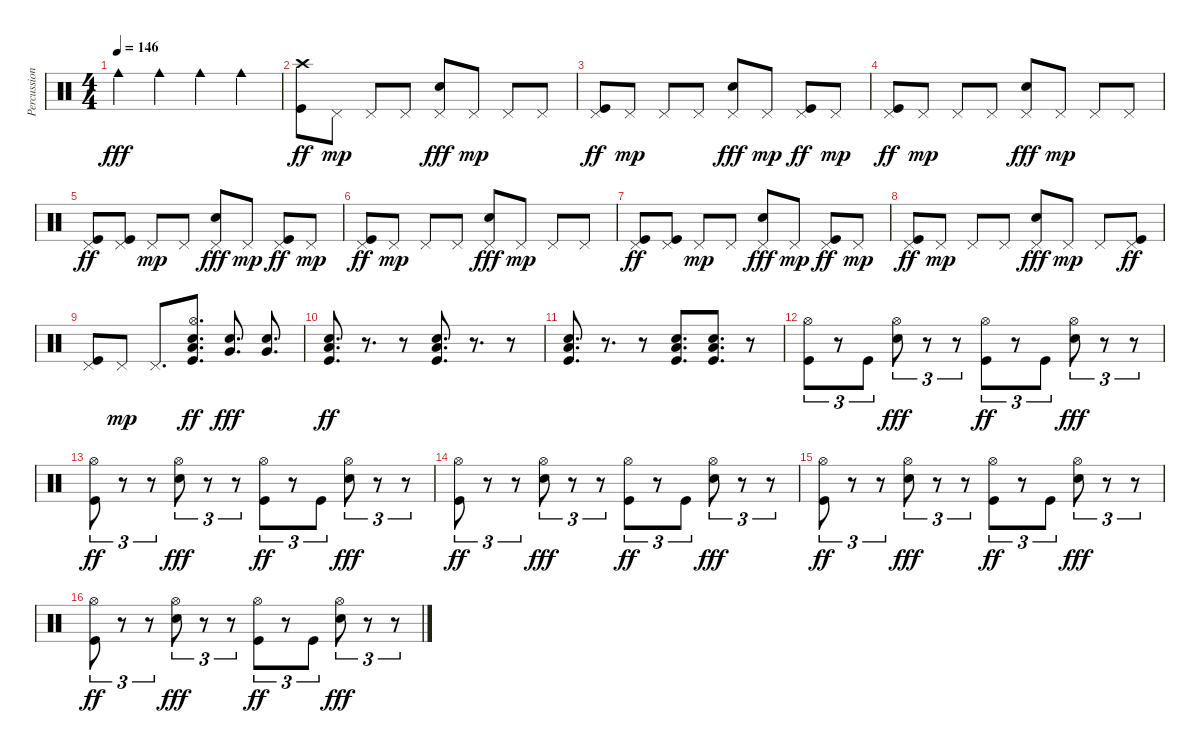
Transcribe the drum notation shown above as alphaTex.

\track ("Percussion" "Percussion") {instrument percussion}
\staff {score}
\articulation defaults
\ts (4 4)
\tempo 146
\tempo 182
\tempo 146
\clef neutral
\ks c "Cowbell medium (hit)".4{dy fff} "Cowbell medium (hit)".4 "Cowbell medium (hit)".4 "Cowbell medium (hit)".4
|
("Crash high (hit)" "Kick (hit)").8{dy ff} "Pedal Hi-Hat (hit)".8{dy mp} "Pedal Hi-Hat (hit)".8 "Pedal Hi-Hat (hit)".8 ("Pedal Hi-Hat (hit)" "Snare (hit) 2").8{dy fff} "Pedal Hi-Hat (hit)".8{dy mp} "Pedal Hi-Hat (hit)".8 "Pedal Hi-Hat (hit)".8 |
("Pedal Hi-Hat (hit)" "Kick (hit)").8{dy ff} "Pedal Hi-Hat (hit)".8{dy mp} "Pedal Hi-Hat (hit)".8 "Pedal Hi-Hat (hit)".8 ("Pedal Hi-Hat (hit)" "Snare (hit) 2").8{dy fff} "Pedal Hi-Hat (hit)".8{dy mp} ("Pedal Hi-Hat (hit)" "Kick (hit)").8{dy ff} "Pedal Hi-Hat (hit)".8{dy mp} |
("Pedal Hi-Hat (hit)" "Kick (hit)").8{dy ff} "Pedal Hi-Hat (hit)".8{dy mp} "Pedal Hi-Hat (hit)".8 "Pedal Hi-Hat (hit)".8 ("Pedal Hi-Hat (hit)" "Snare (hit) 2").8{dy fff} "Pedal Hi-Hat (hit)".8{dy mp} "Pedal Hi-Hat (hit)".8 "Pedal Hi-Hat (hit)".8 |
("Pedal Hi-Hat (hit)" "Kick (hit)").8{dy ff} ("Pedal Hi-Hat (hit)" "Kick (hit)").8 "Pedal Hi-Hat (hit)".8{dy mp} "Pedal Hi-Hat (hit)".8 ("Pedal Hi-Hat (hit)" "Snare (hit) 2").8{dy fff} "Pedal Hi-Hat (hit)".8{dy mp} ("Pedal Hi-Hat (hit)" "Kick (hit)").8{dy ff} "Pedal Hi-Hat (hit)".8{dy mp} |
("Pedal Hi-Hat (hit)" "Kick (hit)").8{dy ff} "Pedal Hi-Hat (hit)".8{dy mp} "Pedal Hi-Hat (hit)".8 "Pedal Hi-Hat (hit)".8 ("Pedal Hi-Hat (hit)" "Snare (hit) 2").8{dy fff} "Pedal Hi-Hat (hit)".8{dy mp} "Pedal Hi-Hat (hit)".8 "Pedal Hi-Hat (hit)".8 |
("Pedal Hi-Hat (hit)" "Kick (hit)").8{dy ff} ("Pedal Hi-Hat (hit)" "Kick (hit)").8 "Pedal Hi-Hat (hit)".8{dy mp} "Pedal Hi-Hat (hit)".8 ("Pedal Hi-Hat (hit)" "Snare (hit) 2").8{dy fff} "Pedal Hi-Hat (hit)".8{dy mp} ("Pedal Hi-Hat (hit)" "Kick (hit)").8{dy ff} "Pedal Hi-Hat (hit)".8{dy mp} |
("Pedal Hi-Hat (hit)" "Kick (hit)").8{dy ff} "Pedal Hi-Hat (hit)".8{dy mp} "Pedal Hi-Hat (hit)".8 "Pedal Hi-Hat (hit)".8 ("Pedal Hi-Hat (hit)" "Snare (hit) 2").8{dy fff} "Pedal Hi-Hat (hit)".8{dy mp} "Pedal Hi-Hat (hit)".8 ("Pedal Hi-Hat (hit)" "Kick (hit)").8{dy ff} |
("Pedal Hi-Hat (hit)" "Kick (hit)").8 "Pedal Hi-Hat (hit)".8{dy mp} "Pedal Hi-Hat (hit)".8{d} ("Hi-Hat (open)" "Low Tom (hit)" "Snare (hit) 2" "Kick (hit)").8{d dy ff} ("Very Low Tom (hit)" "Snare (hit) 2").8{d dy fff} ("Very Low Tom (hit)" "Snare (hit) 2").8{d} |
("Low Floor Tom (hit)" "Snare (hit) 2" "Kick (hit)").8{d dy ff} r.8{d} r.8 ("Low Floor Tom (hit)" "Snare (hit) 2" "Kick (hit)").8{d} r.8{d} r.8 |
("Low Floor Tom (hit)" "Snare (hit) 2" "Kick (hit)").8{d} r.8{d} r.8 ("Low Floor Tom (hit)" "Snare (hit) 2" "Kick (hit)").8{d} ("Low Floor Tom (hit)" "Snare (hit) 2" "Kick (hit)").8{d} r.8 |
("Hi-Hat (open)" "Kick (hit)").8{tu (3 2)} r.8{tu (3 2)} "Kick (hit)".8{tu (3 2)} ("Hi-Hat (open)" "Snare (hit) 2").8{tu (3 2) dy fff} r.8{tu (3 2)} r.8{tu (3 2)} ("Hi-Hat (open)" "Kick (hit)").8{tu (3 2) dy ff} r.8{tu (3 2)} "Kick (hit)".8{tu (3 2)} ("Hi-Hat (open)" "Snare (hit) 2").8{tu (3 2) dy fff} r.8{tu (3 2)} r.8{tu (3 2)} |
("Hi-Hat (open)" "Kick (hit)").8{tu (3 2) dy ff} r.8{tu (3 2)} r.8{tu (3 2)} ("Hi-Hat (open)" "Snare (hit) 2").8{tu (3 2) dy fff} r.8{tu (3 2)} r.8{tu (3 2)} ("Hi-Hat (open)" "Kick (hit)").8{tu (3 2) dy ff} r.8{tu (3 2)} "Kick (hit)".8{tu (3 2)} ("Hi-Hat (open)" "Snare (hit) 2").8{tu (3 2) dy fff} r.8{tu (3 2)} r.8{tu (3 2)} |
("Hi-Hat (open)" "Kick (hit)").8{tu (3 2) dy ff} r.8{tu (3 2)} r.8{tu (3 2)} ("Hi-Hat (open)" "Snare (hit) 2").8{tu (3 2) dy fff} r.8{tu (3 2)} r.8{tu (3 2)} ("Hi-Hat (open)" "Kick (hit)").8{tu (3 2) dy ff} r.8{tu (3 2)} "Kick (hit)".8{tu (3 2)} ("Hi-Hat (open)" "Snare (hit) 2").8{tu (3 2) dy fff} r.8{tu (3 2)} r.8{tu (3 2)} |
("Hi-Hat (open)" "Kick (hit)").8{tu (3 2) dy ff} r.8{tu (3 2)} r.8{tu (3 2)} ("Hi-Hat (open)" "Snare (hit) 2").8{tu (3 2) dy fff} r.8{tu (3 2)} r.8{tu (3 2)} ("Hi-Hat (open)" "Kick (hit)").8{tu (3 2) dy ff} r.8{tu (3 2)} "Kick (hit)".8{tu (3 2)} ("Hi-Hat (open)" "Snare (hit) 2").8{tu (3 2) dy fff} r.8{tu (3 2)} r.8{tu (3 2)} |
("Hi-Hat (open)" "Kick (hit)").8{tu (3 2) dy ff} r.8{tu (3 2)} r.8{tu (3 2)} ("Hi-Hat (open)" "Snare (hit) 2").8{tu (3 2) dy fff} r.8{tu (3 2)} r.8{tu (3 2)} ("Hi-Hat (open)" "Kick (hit)").8{tu (3 2) dy ff} r.8{tu (3 2)} "Kick (hit)".8{tu (3 2)} ("Hi-Hat (open)" "Snare (hit) 2").8{tu (3 2) dy fff} r.8{tu (3 2)} r.8{tu (3 2)}
